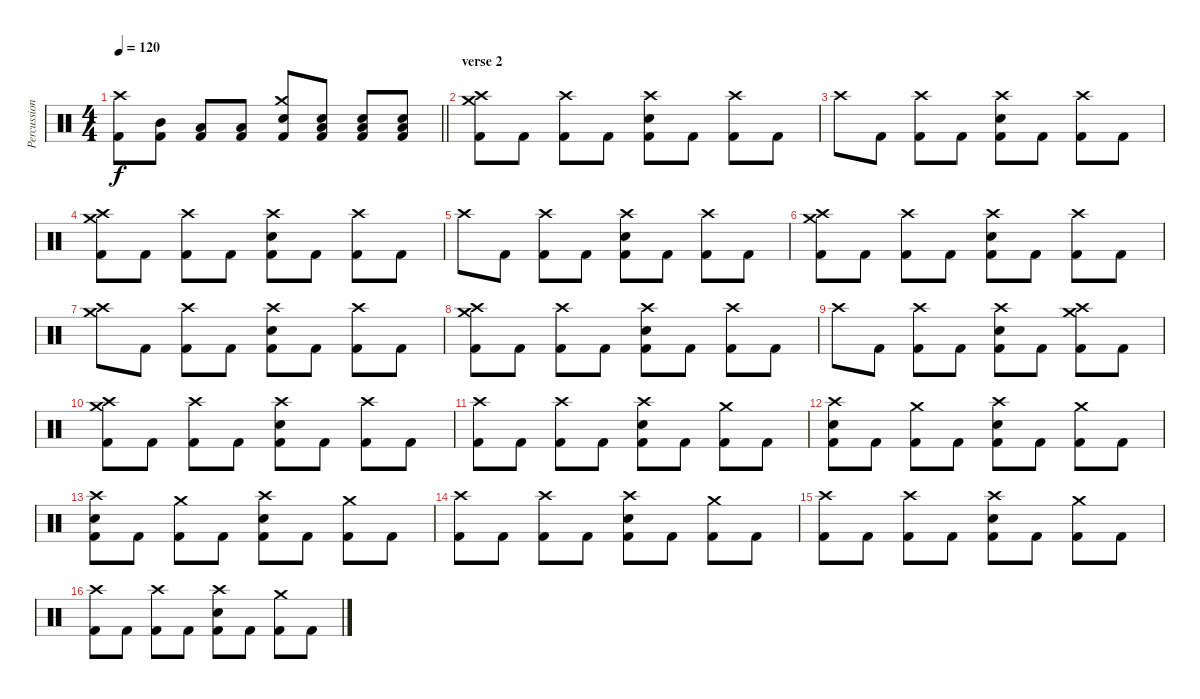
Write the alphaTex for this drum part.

\track ("Percussion" "Percussion") {instrument percussion}
\staff {score}
\articulation defaults
\ts (4 4)
\tempo 120
\clef neutral
\barLineRight lightlight
\ks c
("Crash high (hit)" "Kick (hit) 2").8{dy f} ("Mid Tom (hit)" "Kick (hit) 2").8 ("Low Tom (hit)" "Kick (hit) 2").8 ("Low Tom (hit)" "Kick (hit) 2").8 ("Crash medium (hit)" "Electric Snare (hit)" "Kick (hit) 2").8 ("Low Tom (hit)" "Electric Snare (hit)" "Kick (hit) 2").8 ("Electric Snare (hit)" "Low Tom (hit)" "Kick (hit) 2").8 ("Electric Snare (hit)" "Low Tom (hit)" "Kick (hit) 2").8 |
\section ("" "verse 2")
("Crash high (hit)" "Crash medium (hit)" "Kick (hit) 2").8 "Kick (hit) 2".8 ("Crash high (hit)" "Kick (hit) 2").8 "Kick (hit) 2".8 ("Crash high (hit)" "Electric Snare (hit)" "Kick (hit) 2").8 "Kick (hit) 2".8 ("Crash high (hit)" "Kick (hit) 2").8 "Kick (hit) 2".8 |
"Crash high (hit)".8 "Kick (hit) 2".8 ("Crash high (hit)" "Kick (hit) 2").8 "Kick (hit) 2".8 ("Crash high (hit)" "Electric Snare (hit)" "Kick (hit) 2").8 "Kick (hit) 2".8 ("Crash high (hit)" "Kick (hit) 2").8 "Kick (hit) 2".8 |
("Crash high (hit)" "Crash medium (hit)" "Kick (hit) 2").8 "Kick (hit) 2".8 ("Crash high (hit)" "Kick (hit) 2").8 "Kick (hit) 2".8 ("Crash high (hit)" "Electric Snare (hit)" "Kick (hit) 2").8 "Kick (hit) 2".8 ("Crash high (hit)" "Kick (hit) 2").8 "Kick (hit) 2".8 |
"Crash high (hit)".8 "Kick (hit) 2".8 ("Crash high (hit)" "Kick (hit) 2").8 "Kick (hit) 2".8 ("Crash high (hit)" "Electric Snare (hit)" "Kick (hit) 2").8 "Kick (hit) 2".8 ("Crash high (hit)" "Kick (hit) 2").8 "Kick (hit) 2".8 |
("Crash high (hit)" "Crash medium (hit)" "Kick (hit) 2").8 "Kick (hit) 2".8 ("Crash high (hit)" "Kick (hit) 2").8 "Kick (hit) 2".8 ("Crash high (hit)" "Electric Snare (hit)" "Kick (hit) 2").8 "Kick (hit) 2".8 ("Crash high (hit)" "Kick (hit) 2").8 "Kick (hit) 2".8 |
("Crash high (hit)" "Crash medium (hit)").8 "Kick (hit) 2".8 ("Crash high (hit)" "Kick (hit) 2").8 "Kick (hit) 2".8 ("Crash high (hit)" "Electric Snare (hit)" "Kick (hit) 2").8 "Kick (hit) 2".8 ("Crash high (hit)" "Kick (hit) 2").8 "Kick (hit) 2".8 |
("Crash high (hit)" "Crash medium (hit)" "Kick (hit) 2").8 "Kick (hit) 2".8 ("Crash high (hit)" "Kick (hit) 2").8 "Kick (hit) 2".8 ("Crash high (hit)" "Electric Snare (hit)" "Kick (hit) 2").8 "Kick (hit) 2".8 ("Crash high (hit)" "Kick (hit) 2").8 "Kick (hit) 2".8 |
"Crash high (hit)".8 "Kick (hit) 2".8 ("Crash high (hit)" "Kick (hit) 2").8 "Kick (hit) 2".8 ("Crash high (hit)" "Electric Snare (hit)" "Kick (hit) 2").8 "Kick (hit) 2".8 ("Crash high (hit)" "Crash medium (hit)" "Kick (hit) 2").8 "Kick (hit) 2".8 |
("Crash high (hit)" "Crash medium (hit)" "Kick (hit) 2").8 "Kick (hit) 2".8 ("Crash high (hit)" "Kick (hit) 2").8 "Kick (hit) 2".8 ("Crash high (hit)" "Electric Snare (hit)" "Kick (hit) 2").8 "Kick (hit) 2".8 ("Crash high (hit)" "Kick (hit) 2").8 "Kick (hit) 2".8 |
("Crash high (hit)" "Kick (hit) 2").8 "Kick (hit) 2".8 ("Crash high (hit)" "Kick (hit) 2").8 "Kick (hit) 2".8 ("Crash high (hit)" "Electric Snare (hit)" "Kick (hit) 2").8 "Kick (hit) 2".8 ("Crash medium (hit)" "Kick (hit) 2").8 "Kick (hit) 2".8 |
("Crash high (hit)" "Electric Snare (hit)" "Kick (hit) 2").8 "Kick (hit) 2".8 ("Crash medium (hit)" "Kick (hit) 2").8 "Kick (hit) 2".8 ("Crash high (hit)" "Electric Snare (hit)" "Kick (hit) 2").8 "Kick (hit) 2".8 ("Crash medium (hit)" "Kick (hit) 2").8 "Kick (hit) 2".8 |
("Crash high (hit)" "Electric Snare (hit)" "Kick (hit) 2").8 "Kick (hit) 2".8 ("Crash medium (hit)" "Kick (hit) 2").8 "Kick (hit) 2".8 ("Crash high (hit)" "Electric Snare (hit)" "Kick (hit) 2").8 "Kick (hit) 2".8 ("Crash medium (hit)" "Kick (hit) 2").8 "Kick (hit) 2".8 |
("Crash high (hit)" "Kick (hit) 2").8 "Kick (hit) 2".8 ("Crash high (hit)" "Kick (hit) 2").8 "Kick (hit) 2".8 ("Electric Snare (hit)" "Crash high (hit)" "Kick (hit) 2").8 "Kick (hit) 2".8 ("Crash medium (hit)" "Kick (hit) 2").8 "Kick (hit) 2".8 |
("Crash high (hit)" "Kick (hit) 2").8 "Kick (hit) 2".8 ("Crash high (hit)" "Kick (hit) 2").8 "Kick (hit) 2".8 ("Electric Snare (hit)" "Crash high (hit)" "Kick (hit) 2").8 "Kick (hit) 2".8 ("Crash medium (hit)" "Kick (hit) 2").8 "Kick (hit) 2".8 |
("Crash high (hit)" "Kick (hit) 2").8 "Kick (hit) 2".8 ("Crash high (hit)" "Kick (hit) 2").8 "Kick (hit) 2".8 ("Electric Snare (hit)" "Crash high (hit)" "Kick (hit) 2").8 "Kick (hit) 2".8 ("Crash medium (hit)" "Kick (hit) 2").8 "Kick (hit) 2".8
